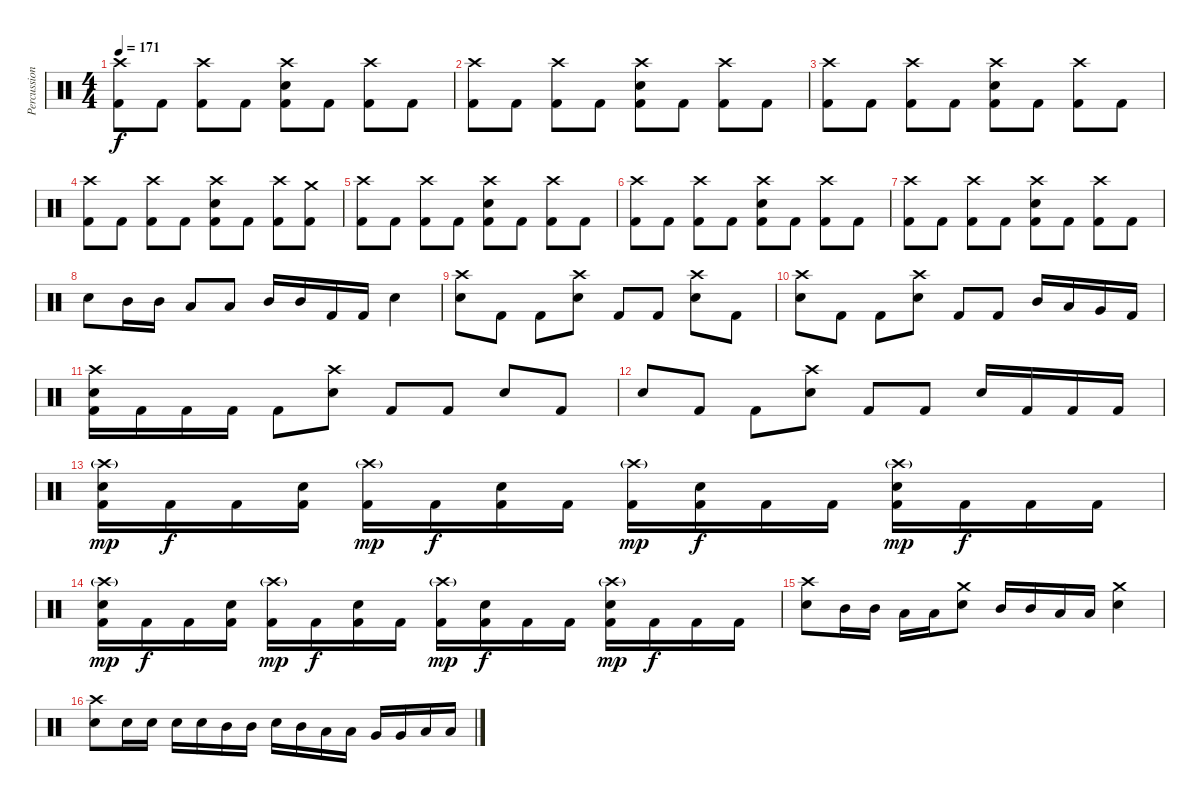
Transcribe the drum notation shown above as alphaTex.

\track ("Percussion" "Percussion") {instrument percussion}
\staff {score}
\articulation defaults
\ts (4 4)
\tempo 171
\clef neutral
\ks c
("Crash high (hit)" "Kick (hit) 2").8{dy f} "Kick (hit) 2".8 ("Crash high (hit)" "Kick (hit) 2").8 "Kick (hit) 2".8 ("Crash high (hit)" "Electric Snare (hit)" "Kick (hit) 2").8 "Kick (hit) 2".8 ("Crash high (hit)" "Kick (hit) 2").8 "Kick (hit) 2".8 |
("Crash high (hit)" "Kick (hit) 2").8 "Kick (hit) 2".8 ("Crash high (hit)" "Kick (hit) 2").8 "Kick (hit) 2".8 ("Crash high (hit)" "Electric Snare (hit)" "Kick (hit) 2").8 "Kick (hit) 2".8 ("Crash high (hit)" "Kick (hit) 2").8 "Kick (hit) 2".8 |
("Crash high (hit)" "Kick (hit) 2").8 "Kick (hit) 2".8 ("Crash high (hit)" "Kick (hit) 2").8 "Kick (hit) 2".8 ("Crash high (hit)" "Electric Snare (hit)" "Kick (hit) 2").8 "Kick (hit) 2".8 ("Crash high (hit)" "Kick (hit) 2").8 "Kick (hit) 2".8 |
("Crash high (hit)" "Kick (hit) 2").8 "Kick (hit) 2".8 ("Crash high (hit)" "Kick (hit) 2").8 "Kick (hit) 2".8 ("Crash high (hit)" "Electric Snare (hit)" "Kick (hit) 2").8 "Kick (hit) 2".8 ("Crash high (hit)" "Kick (hit) 2").8 ("Crash medium (hit)" "Kick (hit) 2").8 |
("Crash high (hit)" "Kick (hit) 2").8 "Kick (hit) 2".8 ("Crash high (hit)" "Kick (hit) 2").8 "Kick (hit) 2".8 ("Crash high (hit)" "Electric Snare (hit)" "Kick (hit) 2").8 "Kick (hit) 2".8 ("Crash high (hit)" "Kick (hit) 2").8 "Kick (hit) 2".8 |
("Crash high (hit)" "Kick (hit) 2").8 "Kick (hit) 2".8 ("Crash high (hit)" "Kick (hit) 2").8 "Kick (hit) 2".8 ("Crash high (hit)" "Electric Snare (hit)" "Kick (hit) 2").8 "Kick (hit) 2".8 ("Crash high (hit)" "Kick (hit) 2").8 "Kick (hit) 2".8 |
("Crash high (hit)" "Kick (hit) 2").8 "Kick (hit) 2".8 ("Crash high (hit)" "Kick (hit) 2").8 "Kick (hit) 2".8 ("Crash high (hit)" "Electric Snare (hit)" "Kick (hit) 2").8 "Kick (hit) 2".8 ("Crash high (hit)" "Kick (hit) 2").8 "Kick (hit) 2".8 |
"Electric Snare (hit)".8 "Mid Tom (hit)".16 "Mid Tom (hit)".16 "Low Tom (hit)".8 "Low Tom (hit)".8 "Mid Tom (hit)".16 "Mid Tom (hit)".16 "Kick (hit) 2".16 "Kick (hit) 2".16 "Electric Snare (hit)".4 |
("Crash high (hit)" "Electric Snare (hit)").8 "Kick (hit) 2".8 "Kick (hit) 2".8 ("Crash high (hit)" "Electric Snare (hit)").8 "Kick (hit) 2".8 "Kick (hit) 2".8 ("Crash high (hit)" "Electric Snare (hit)").8 "Kick (hit) 2".8 |
("Crash high (hit)" "Electric Snare (hit)").8 "Kick (hit) 2".8 "Kick (hit) 2".8 ("Crash high (hit)" "Electric Snare (hit)").8 "Kick (hit) 2".8 "Kick (hit) 2".8 "Mid Tom (hit)".16 "Low Tom (hit)".16 "Very Low Tom (hit)".16 "Kick (hit) 2".16 |
("Crash high (hit)" "Electric Snare (hit)" "Kick (hit) 2").16 "Kick (hit) 2".16 "Kick (hit) 2".16 "Kick (hit) 2".16 "Kick (hit) 2".8 ("Crash high (hit)" "Electric Snare (hit)").8 "Kick (hit) 2".8 "Kick (hit) 2".8 "Electric Snare (hit)".8 "Kick (hit) 2".8 |
"Electric Snare (hit)".8 "Kick (hit) 2".8 "Kick (hit) 2".8 ("Crash high (hit)" "Electric Snare (hit)").8 "Kick (hit) 2".8 "Kick (hit) 2".8 "Electric Snare (hit)".16 "Kick (hit) 2".16 "Kick (hit) 2".16 "Kick (hit) 2".16 |
("Crash high (hit)"{g} "Electric Snare (hit)" "Kick (hit) 2").16{dy mp} "Kick (hit) 2".16{dy f} "Kick (hit) 2".16 ("Electric Snare (hit)" "Kick (hit) 2").16 ("Crash high (hit)"{g} "Kick (hit) 2").16{dy mp} "Kick (hit) 2".16{dy f} ("Electric Snare (hit)" "Kick (hit) 2").16 "Kick (hit) 2".16 ("Crash high (hit)"{g} "Kick (hit) 2").16{dy mp} ("Electric Snare (hit)" "Kick (hit) 2").16{dy f} "Kick (hit) 2".16 "Kick (hit) 2".16 ("Crash high (hit)"{g} "Electric Snare (hit)" "Kick (hit) 2").16{dy mp} "Kick (hit) 2".16{dy f} "Kick (hit) 2".16 "Kick (hit) 2".16 |
("Crash high (hit)"{g} "Electric Snare (hit)" "Kick (hit) 2").16{dy mp} "Kick (hit) 2".16{dy f} "Kick (hit) 2".16 ("Electric Snare (hit)" "Kick (hit) 2").16 ("Crash high (hit)"{g} "Kick (hit) 2").16{dy mp} "Kick (hit) 2".16{dy f} ("Electric Snare (hit)" "Kick (hit) 2").16 "Kick (hit) 2".16 ("Crash high (hit)"{g} "Kick (hit) 2").16{dy mp} ("Electric Snare (hit)" "Kick (hit) 2").16{dy f} "Kick (hit) 2".16 "Kick (hit) 2".16 ("Crash high (hit)"{g} "Electric Snare (hit)" "Kick (hit) 2").16{dy mp} "Kick (hit) 2".16{dy f} "Kick (hit) 2".16 "Kick (hit) 2".16 |
("Crash high (hit)" "Electric Snare (hit)").8 "Mid Tom (hit)".16 "Mid Tom (hit)".16 "Low Tom (hit)".16 "Low Tom (hit)".16 ("Crash medium (hit)" "Electric Snare (hit)").8 "Mid Tom (hit)".16 "Mid Tom (hit)".16 "Low Tom (hit)".16 "Low Tom (hit)".16 ("Crash medium (hit)" "Electric Snare (hit)").4 |
("Crash high (hit)" "Electric Snare (hit)").8 "Electric Snare (hit)".16 "Electric Snare (hit)".16 "Electric Snare (hit)".16 "Electric Snare (hit)".16 "Mid Tom (hit)".16 "Mid Tom (hit)".16 "Electric Snare (hit)".16 "Mid Tom (hit)".16 "Low Tom (hit)".16 "Low Tom (hit)".16 "Very Low Tom (hit)".16 "Very Low Tom (hit)".16 "Low Floor Tom (hit)".16 "Low Floor Tom (hit)".16
